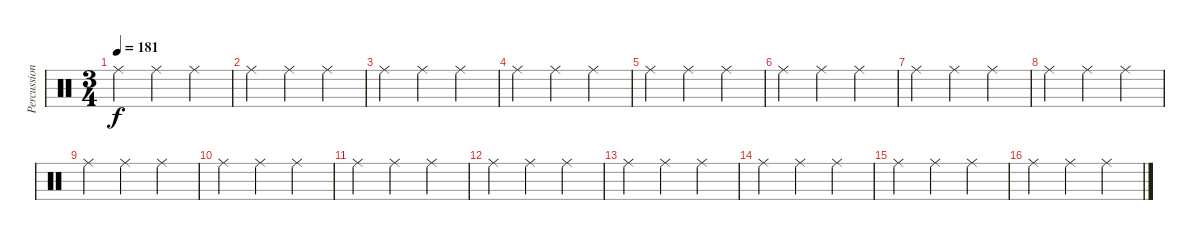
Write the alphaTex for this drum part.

\track ("Percussion" "Percussion") {instrument percussion}
\staff {score}
\articulation defaults
\ts (3 4)
\tempo 181
\clef neutral
\ks c "Ride (middle)".4{dy f} "Ride (middle)".4 "Ride (middle)".4
|
"Ride (middle)".4 "Ride (middle)".4 "Ride (middle)".4 |
"Ride (middle)".4 "Ride (middle)".4 "Ride (middle)".4 |
"Ride (middle)".4 "Ride (middle)".4 "Ride (middle)".4 |
"Ride (middle)".4 "Ride (middle)".4 "Ride (middle)".4 |
"Ride (middle)".4 "Ride (middle)".4 "Ride (middle)".4 |
"Ride (middle)".4 "Ride (middle)".4 "Ride (middle)".4 |
"Ride (middle)".4 "Ride (middle)".4 "Ride (middle)".4 |
"Ride (middle)".4 "Ride (middle)".4 "Ride (middle)".4 |
"Ride (middle)".4 "Ride (middle)".4 "Ride (middle)".4 |
"Ride (middle)".4 "Ride (middle)".4 "Ride (middle)".4 |
"Ride (middle)".4 "Ride (middle)".4 "Ride (middle)".4 |
"Ride (middle)".4 "Ride (middle)".4 "Ride (middle)".4 |
"Ride (middle)".4 "Ride (middle)".4 "Ride (middle)".4 |
"Ride (middle)".4 "Ride (middle)".4 "Ride (middle)".4 |
"Ride (middle)".4 "Ride (middle)".4 "Ride (middle)".4
